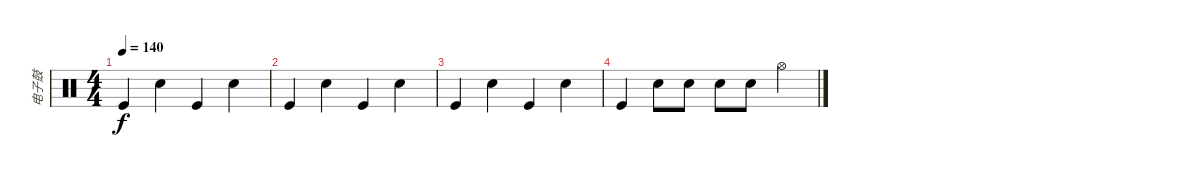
\track ("电子鼓" "电子鼓") {instrument percussion}
\staff {score}
\articulation defaults
\ts (4 4)
\tempo 140
\clef neutral
\ks c "Kick (hit)".4{dy f} "Snare (hit) 2".4 "Kick (hit)".4 "Snare (hit) 2".4
|
"Kick (hit)".4 "Snare (hit) 2".4 "Kick (hit)".4 "Snare (hit) 2".4 |
"Kick (hit)".4 "Snare (hit) 2".4 "Kick (hit)".4 "Snare (hit) 2".4 |
"Kick (hit)".4 "Snare (hit) 2".8 "Snare (hit) 2".8 "Snare (hit) 2".8 "Snare (hit) 2".8 "Hi-Hat (open)".4
